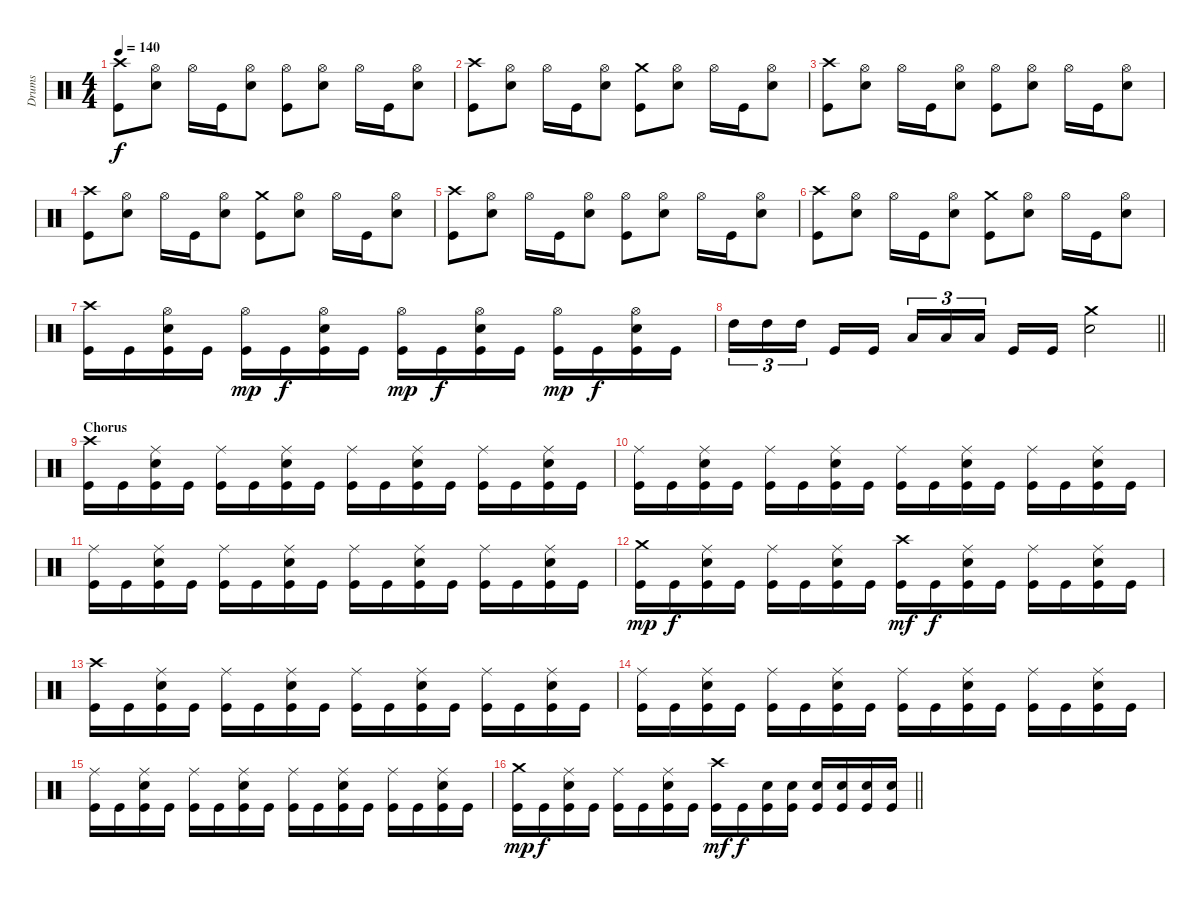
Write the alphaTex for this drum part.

\track ("Drums" "Drums") {instrument percussion}
\staff {score}
\articulation defaults
\ts (4 4)
\tempo 140
\clef neutral
\ks c
("Crash high (hit)" "Kick (hit)").8{dy f} ("Hi-Hat (open)" "Electric Snare (hit)").8 "Hi-Hat (open)".16 "Kick (hit)".16 ("Hi-Hat (open)" "Electric Snare (hit)").8 ("Hi-Hat (open)" "Kick (hit)").8 ("Hi-Hat (open)" "Electric Snare (hit)").8 "Hi-Hat (open)".16 "Kick (hit)".16 ("Hi-Hat (open)" "Electric Snare (hit)").8 |
("Crash high (hit)" "Kick (hit)").8 ("Hi-Hat (open)" "Electric Snare (hit)").8 "Hi-Hat (open)".16 "Kick (hit)".16 ("Hi-Hat (open)" "Electric Snare (hit)").8 ("Crash medium (hit)" "Kick (hit)").8 ("Hi-Hat (open)" "Electric Snare (hit)").8 "Hi-Hat (open)".16 "Kick (hit)".16 ("Hi-Hat (open)" "Electric Snare (hit)").8 |
("Crash high (hit)" "Kick (hit)").8 ("Hi-Hat (open)" "Electric Snare (hit)").8 "Hi-Hat (open)".16 "Kick (hit)".16 ("Hi-Hat (open)" "Electric Snare (hit)").8 ("Hi-Hat (open)" "Kick (hit)").8 ("Hi-Hat (open)" "Electric Snare (hit)").8 "Hi-Hat (open)".16 "Kick (hit)".16 ("Hi-Hat (open)" "Electric Snare (hit)").8 |
("Crash high (hit)" "Kick (hit)").8 ("Hi-Hat (open)" "Electric Snare (hit)").8 "Hi-Hat (open)".16 "Kick (hit)".16 ("Hi-Hat (open)" "Electric Snare (hit)").8 ("Crash medium (hit)" "Kick (hit)").8 ("Hi-Hat (open)" "Electric Snare (hit)").8 "Hi-Hat (open)".16 "Kick (hit)".16 ("Hi-Hat (open)" "Electric Snare (hit)").8 |
("Crash high (hit)" "Kick (hit)").8 ("Hi-Hat (open)" "Electric Snare (hit)").8 "Hi-Hat (open)".16 "Kick (hit)".16 ("Hi-Hat (open)" "Electric Snare (hit)").8 ("Hi-Hat (open)" "Kick (hit)").8 ("Hi-Hat (open)" "Electric Snare (hit)").8 "Hi-Hat (open)".16 "Kick (hit)".16 ("Hi-Hat (open)" "Electric Snare (hit)").8 |
("Crash high (hit)" "Kick (hit)").8 ("Hi-Hat (open)" "Electric Snare (hit)").8 "Hi-Hat (open)".16 "Kick (hit)".16 ("Hi-Hat (open)" "Electric Snare (hit)").8 ("Crash medium (hit)" "Kick (hit)").8 ("Hi-Hat (open)" "Electric Snare (hit)").8 "Hi-Hat (open)".16 "Kick (hit)".16 ("Hi-Hat (open)" "Electric Snare (hit)").8 |
("Crash high (hit)" "Kick (hit)").16 "Kick (hit)".16 ("Hi-Hat (open)" "Electric Snare (hit)" "Kick (hit)").16 "Kick (hit)".16 ("Hi-Hat (open)" "Kick (hit)").16{dy mp} "Kick (hit)".16{dy f} ("Hi-Hat (open)" "Electric Snare (hit)" "Kick (hit)").16 "Kick (hit)".16 ("Hi-Hat (open)" "Kick (hit)").16{dy mp} "Kick (hit)".16{dy f} ("Hi-Hat (open)" "Electric Snare (hit)" "Kick (hit)").16 "Kick (hit)".16 ("Hi-Hat (open)" "Kick (hit)").16{dy mp} "Kick (hit)".16{dy f} ("Hi-Hat (open)" "Electric Snare (hit)" "Kick (hit)").16 "Kick (hit)".16 |
\barLineRight lightlight "High Tom (hit)".16{tu (3 2)} "High Tom (hit)".16{tu (3 2)} "High Tom (hit)".16{tu (3 2)} "Kick (hit)".16 "Kick (hit)".16 "Low Tom (hit)".16{tu (3 2)} "Low Tom (hit)".16{tu (3 2)} "Low Tom (hit)".16{tu (3 2)} "Kick (hit)".16 "Kick (hit)".16
("Crash medium (hit)" "Electric Snare (hit)").2 |
\section ("" "Chorus")
("Crash high (hit)" "Kick (hit)").16 "Kick (hit)".16 ("Ride (middle)" "Electric Snare (hit)" "Kick (hit)").16 "Kick (hit)".16 ("Ride (middle)" "Kick (hit)").16 "Kick (hit)".16 ("Ride (middle)" "Electric Snare (hit)" "Kick (hit)").16 "Kick (hit)".16 ("Ride (middle)" "Kick (hit)").16 "Kick (hit)".16 ("Ride (middle)" "Electric Snare (hit)" "Kick (hit)").16 "Kick (hit)".16 ("Ride (middle)" "Kick (hit)").16 "Kick (hit)".16 ("Ride (middle)" "Electric Snare (hit)" "Kick (hit)").16 "Kick (hit)".16 |
("Ride (middle)" "Kick (hit)").16 "Kick (hit)".16 ("Ride (middle)" "Electric Snare (hit)" "Kick (hit)").16 "Kick (hit)".16 ("Ride (middle)" "Kick (hit)").16 "Kick (hit)".16 ("Ride (middle)" "Electric Snare (hit)" "Kick (hit)").16 "Kick (hit)".16 ("Ride (middle)" "Kick (hit)").16 "Kick (hit)".16 ("Ride (middle)" "Electric Snare (hit)" "Kick (hit)").16 "Kick (hit)".16 ("Ride (middle)" "Kick (hit)").16 "Kick (hit)".16 ("Ride (middle)" "Electric Snare (hit)" "Kick (hit)").16 "Kick (hit)".16 |
("Ride (middle)" "Kick (hit)").16 "Kick (hit)".16 ("Ride (middle)" "Electric Snare (hit)" "Kick (hit)").16 "Kick (hit)".16 ("Ride (middle)" "Kick (hit)").16 "Kick (hit)".16 ("Ride (middle)" "Electric Snare (hit)" "Kick (hit)").16 "Kick (hit)".16 ("Ride (middle)" "Kick (hit)").16 "Kick (hit)".16 ("Ride (middle)" "Electric Snare (hit)" "Kick (hit)").16 "Kick (hit)".16 ("Ride (middle)" "Kick (hit)").16 "Kick (hit)".16 ("Ride (middle)" "Electric Snare (hit)" "Kick (hit)").16 "Kick (hit)".16 |
("Crash medium (hit)" "Kick (hit)").16{dy mp} "Kick (hit)".16{dy f} ("Ride (middle)" "Electric Snare (hit)" "Kick (hit)").16 "Kick (hit)".16 ("Ride (middle)" "Kick (hit)").16 "Kick (hit)".16 ("Ride (middle)" "Electric Snare (hit)" "Kick (hit)").16 "Kick (hit)".16 ("Crash high (hit)" "Kick (hit)").16{dy mf} "Kick (hit)".16{dy f} ("Ride (middle)" "Electric Snare (hit)" "Kick (hit)").16 "Kick (hit)".16 ("Ride (middle)" "Kick (hit)").16 "Kick (hit)".16 ("Ride (middle)" "Electric Snare (hit)" "Kick (hit)").16 "Kick (hit)".16 |
("Crash high (hit)" "Kick (hit)").16 "Kick (hit)".16 ("Ride (middle)" "Electric Snare (hit)" "Kick (hit)").16 "Kick (hit)".16 ("Ride (middle)" "Kick (hit)").16 "Kick (hit)".16 ("Ride (middle)" "Electric Snare (hit)" "Kick (hit)").16 "Kick (hit)".16 ("Ride (middle)" "Kick (hit)").16 "Kick (hit)".16 ("Ride (middle)" "Electric Snare (hit)" "Kick (hit)").16 "Kick (hit)".16 ("Ride (middle)" "Kick (hit)").16 "Kick (hit)".16 ("Ride (middle)" "Electric Snare (hit)" "Kick (hit)").16 "Kick (hit)".16 |
("Ride (middle)" "Kick (hit)").16 "Kick (hit)".16 ("Ride (middle)" "Electric Snare (hit)" "Kick (hit)").16 "Kick (hit)".16 ("Ride (middle)" "Kick (hit)").16 "Kick (hit)".16 ("Ride (middle)" "Electric Snare (hit)" "Kick (hit)").16 "Kick (hit)".16 ("Ride (middle)" "Kick (hit)").16 "Kick (hit)".16 ("Ride (middle)" "Electric Snare (hit)" "Kick (hit)").16 "Kick (hit)".16 ("Ride (middle)" "Kick (hit)").16 "Kick (hit)".16 ("Ride (middle)" "Electric Snare (hit)" "Kick (hit)").16 "Kick (hit)".16 |
("Ride (middle)" "Kick (hit)").16 "Kick (hit)".16 ("Ride (middle)" "Electric Snare (hit)" "Kick (hit)").16 "Kick (hit)".16 ("Ride (middle)" "Kick (hit)").16 "Kick (hit)".16 ("Ride (middle)" "Electric Snare (hit)" "Kick (hit)").16 "Kick (hit)".16 ("Ride (middle)" "Kick (hit)").16 "Kick (hit)".16 ("Ride (middle)" "Electric Snare (hit)" "Kick (hit)").16 "Kick (hit)".16 ("Ride (middle)" "Kick (hit)").16 "Kick (hit)".16 ("Ride (middle)" "Electric Snare (hit)" "Kick (hit)").16 "Kick (hit)".16 |
\barLineRight lightlight
("Crash medium (hit)" "Kick (hit)").16{dy mp} "Kick (hit)".16{dy f} ("Ride (middle)" "Electric Snare (hit)" "Kick (hit)").16 "Kick (hit)".16 ("Ride (middle)" "Kick (hit)").16 "Kick (hit)".16 ("Ride (middle)" "Electric Snare (hit)" "Kick (hit)").16 "Kick (hit)".16 ("Crash high (hit)" "Kick (hit)").16{dy mf} "Kick (hit)".16{dy f} ("Electric Snare (hit)" "Kick (hit)").16 ("Electric Snare (hit)" "Kick (hit)").16 ("Electric Snare (hit)" "Kick (hit)").16 ("Electric Snare (hit)" "Kick (hit)").16 ("Electric Snare (hit)" "Kick (hit)").16 ("Electric Snare (hit)" "Kick (hit)").16
